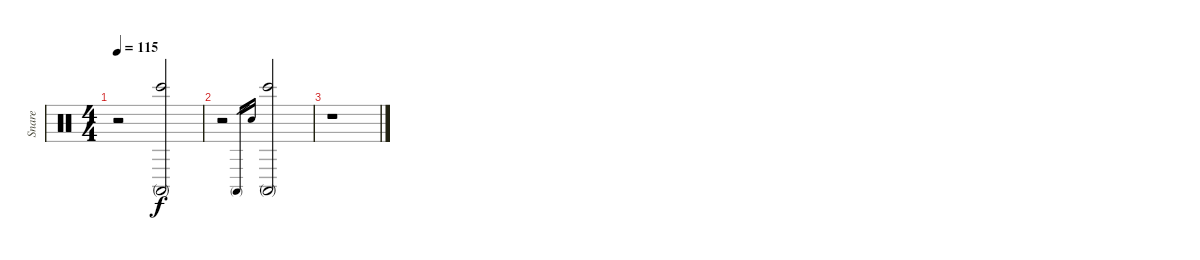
\track ("Snare" "Snare") {instrument percussion}
\staff {score}
\articulation defaults
\ts (4 4)
\tempo 115
\clef neutral
\ks c
r.2{dy f} ("Conga high (mute)" "Bongo High (hit)").2 |
r.2 "Conga high (mute)".16{gr} "Snare (hit)".16{gr} ("Conga high (mute)" "Bongo High (hit)").2 |
r.1
